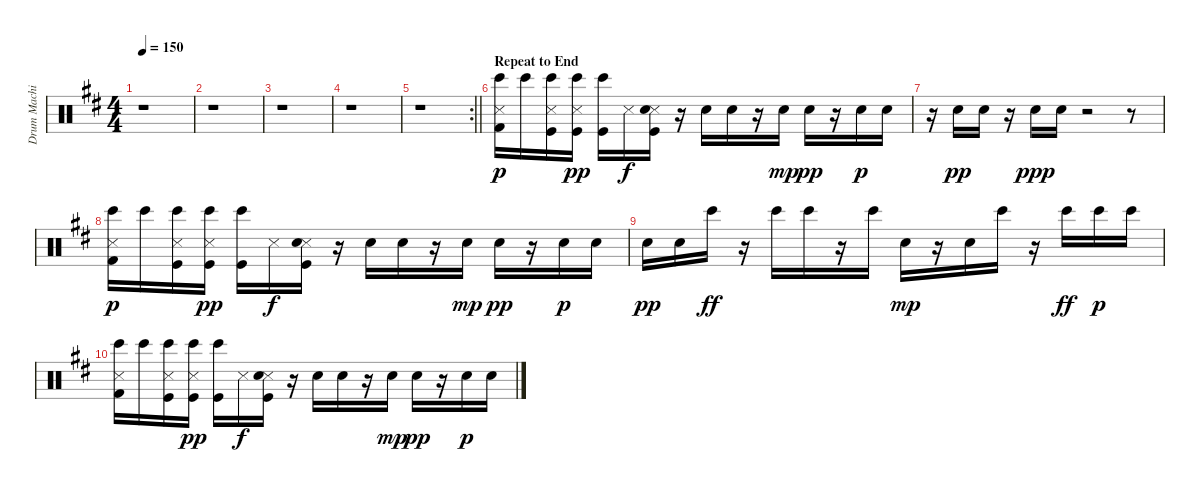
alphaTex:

\track ("Drum Machine" "Drum Machi") {instrument percussion}
\staff {score}
\articulation defaults
\ts (4 4)
\tempo 150
\clef neutral
\ks d
r.1{dy pp} |
r.1 |
r.1 |
r.1 |
\rc 2
\barLineRight lightlight
r.1 |
\section ("" "Repeat to End")
("Metronome (hit)" "Bongo High (hit)" "Kick (hit) 2").16{dy p} "Bongo High (hit)".16 ("Metronome (hit)" "Bongo High (hit)" "Kick (hit)").16 ("Snare (side stick) 3" "Bongo High (hit)" "Kick (hit)").16{dy pp} ("Bongo High (hit)" "Kick (hit)").16 "Metronome (hit)".16{dy f} ("Snare (side stick) 3" "Electric Snare (hit)" "Kick (hit)").16 r.16 "Electric Snare (hit)".16 "Electric Snare (hit)".16 r.16 "Electric Snare (hit)".16{dy mp} "Electric Snare (hit)".16{dy pp} r.16 "Electric Snare (hit)".16{dy p} "Electric Snare (hit)".16 |
r.16 "Electric Snare (hit)".16{dy pp} "Electric Snare (hit)".16 r.16 "Electric Snare (hit)".16{dy ppp} "Electric Snare (hit)".16 r.2 r.8 |
("Metronome (hit)" "Bongo High (hit)" "Kick (hit) 2").16{dy p} "Bongo High (hit)".16 ("Metronome (hit)" "Bongo High (hit)" "Kick (hit)").16 ("Snare (side stick) 3" "Bongo High (hit)" "Kick (hit)").16{dy pp} ("Bongo High (hit)" "Kick (hit)").16 "Metronome (hit)".16{dy f} ("Snare (side stick) 3" "Electric Snare (hit)" "Kick (hit)").16 r.16 "Electric Snare (hit)".16 "Electric Snare (hit)".16 r.16 "Electric Snare (hit)".16{dy mp} "Electric Snare (hit)".16{dy pp} r.16 "Electric Snare (hit)".16{dy p} "Electric Snare (hit)".16 |
"Electric Snare (hit)".16{dy pp} "Electric Snare (hit)".16 "Bongo High (hit)".16{dy ff} r.16 "Bongo High (hit)".16 "Bongo High (hit)".16 r.16 "Bongo High (hit)".16 "Snare (hit) 2".16{dy mp} r.16 "Snare (hit) 2".16 "Bongo High (hit)".16 r.16 "Bongo High (hit)".16{dy ff} "Bongo High (hit)".16{dy p} "Bongo High (hit)".16 |
("Metronome (hit)" "Bongo High (hit)" "Kick (hit) 2").16 "Bongo High (hit)".16 ("Metronome (hit)" "Bongo High (hit)" "Kick (hit)").16 ("Snare (side stick) 3" "Bongo High (hit)" "Kick (hit)").16{dy pp} ("Bongo High (hit)" "Kick (hit)").16 "Metronome (hit)".16{dy f} ("Snare (side stick) 3" "Electric Snare (hit)" "Kick (hit)").16 r.16 "Electric Snare (hit)".16 "Electric Snare (hit)".16 r.16 "Electric Snare (hit)".16{dy mp} "Electric Snare (hit)".16{dy pp} r.16 "Electric Snare (hit)".16{dy p} "Electric Snare (hit)".16
